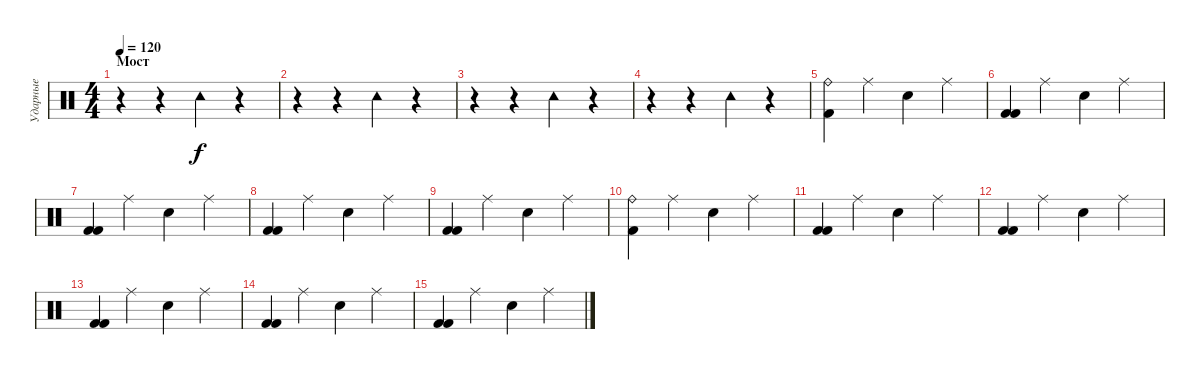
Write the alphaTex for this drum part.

\track ("Ударные" "Ударные") {instrument percussion}
\staff {score}
\articulation defaults
\ts (4 4)
\section ("" "Мост")
\tempo 120
\clef neutral
\ks c
r.4{dy f} r.4 "Tambourine (hit)".4 r.4 |
r.4 r.4 "Tambourine (hit)".4 r.4 |
r.4 r.4 "Tambourine (hit)".4 r.4 |
r.4 r.4 "Tambourine (hit)".4 r.4 |
("Ride (bell)" "Kick (hit) 2").4 "Ride (middle)".4 "Snare (hit) 2".4 "Ride (middle)".4 |
("Kick (hit) 2" "Kick (hit) 2").4 "Ride (middle)".4 "Snare (hit) 2".4 "Ride (middle)".4 |
("Kick (hit) 2" "Kick (hit) 2").4 "Ride (middle)".4 "Snare (hit) 2".4 "Ride (middle)".4 |
("Kick (hit) 2" "Kick (hit) 2").4 "Ride (middle)".4 "Snare (hit) 2".4 "Ride (middle)".4 |
("Kick (hit) 2" "Kick (hit) 2").4 "Ride (middle)".4 "Snare (hit) 2".4 "Ride (middle)".4 |
("Ride (bell)" "Kick (hit) 2").4 "Ride (middle)".4 "Snare (hit) 2".4 "Ride (middle)".4 |
("Kick (hit) 2" "Kick (hit) 2").4 "Ride (middle)".4 "Snare (hit) 2".4 "Ride (middle)".4 |
("Kick (hit) 2" "Kick (hit) 2").4 "Ride (middle)".4 "Snare (hit) 2".4 "Ride (middle)".4 |
("Kick (hit) 2" "Kick (hit) 2").4 "Ride (middle)".4 "Snare (hit) 2".4 "Ride (middle)".4 |
("Kick (hit) 2" "Kick (hit) 2").4 "Ride (middle)".4 "Snare (hit) 2".4 "Ride (middle)".4 |
("Kick (hit) 2" "Kick (hit) 2").4 "Ride (middle)".4 "Snare (hit) 2".4 "Ride (middle)".4
